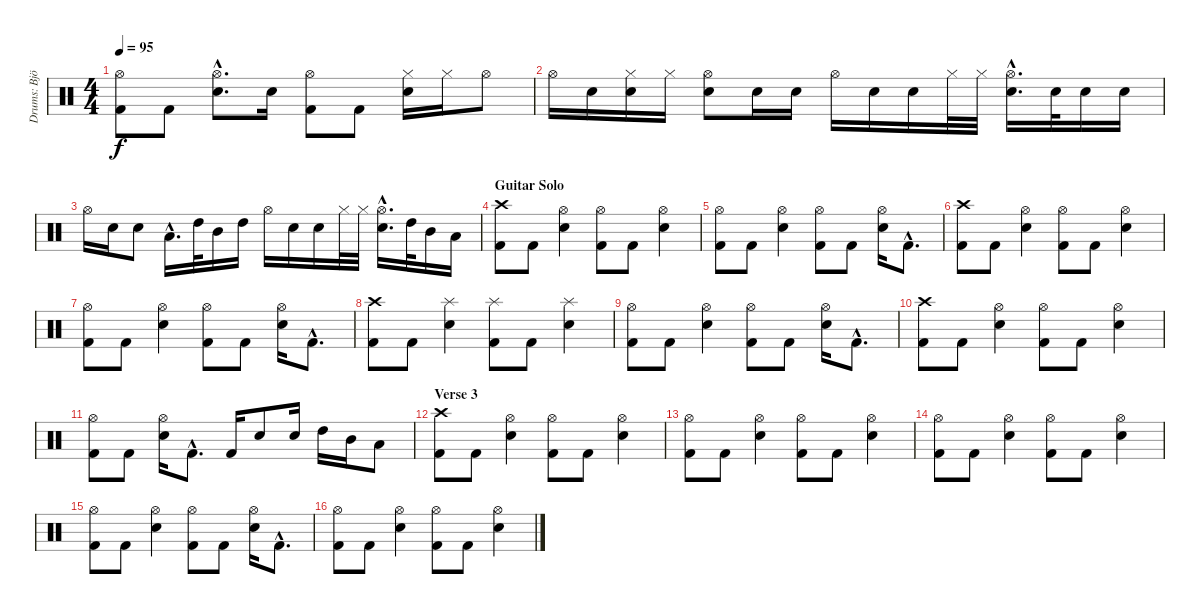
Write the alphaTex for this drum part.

\track ("Drums: Björn Fryklund" "Drums: Bjö") {instrument percussion}
\staff {score}
\articulation defaults
\ts (4 4)
\tempo 95
\clef neutral
\ks c
("Hi-Hat (open)" "Kick (hit) 2").8{dy f} "Kick (hit) 2".8 ("Hi-Hat (open)"{hac} "Snare (hit) 2"{hac}).8{d} "Snare (hit) 2".16 ("Hi-Hat (open)" "Kick (hit) 2").8 "Kick (hit) 2".8 ("Hi-Hat (closed)" "Snare (hit) 2").16 "Hi-Hat (closed)".16 "Hi-Hat (open)".8 |
"Hi-Hat (open)".16 "Snare (hit) 2".16 ("Hi-Hat (closed)" "Snare (hit) 2").16 "Hi-Hat (closed)".16 ("Hi-Hat (open)" "Snare (hit) 2").8 "Snare (hit) 2".16 "Snare (hit) 2".16 "Hi-Hat (open)".16 "Snare (hit) 2".16 "Snare (hit) 2".16 "Hi-Hat (closed)".32 "Hi-Hat (closed)".32 ("Hi-Hat (open)"{hac} "Snare (hit) 2"{hac}).16{d} "Snare (hit) 2".32 "Snare (hit) 2".16 "Snare (hit) 2".16 |
"Hi-Hat (open)".16 "Snare (hit) 2".16 "Snare (hit) 2".8 "Low Tom (hit)"{hac}.16{d} "High Tom (hit)".32 "Mid Tom (hit)".16 "High Tom (hit)".16 "Hi-Hat (open)".16 "Snare (hit) 2".16 "Snare (hit) 2".16 "Hi-Hat (closed)".32 "Hi-Hat (closed)".32 ("Hi-Hat (open)"{hac} "Snare (hit) 2"{hac}).16{d} "High Tom (hit)".32 "Mid Tom (hit)".16 "Low Tom (hit)".16 |
\section ("" "Guitar Solo")
("Crash high (hit)" "Kick (hit) 2").8 "Kick (hit) 2".8 ("Hi-Hat (open)" "Snare (hit) 2").4 ("Hi-Hat (open)" "Kick (hit) 2").8 "Kick (hit) 2".8 ("Hi-Hat (open)" "Snare (hit) 2").4 |
("Hi-Hat (open)" "Kick (hit) 2").8 "Kick (hit) 2".8 ("Hi-Hat (open)" "Snare (hit) 2").4 ("Hi-Hat (open)" "Kick (hit) 2").8 "Kick (hit) 2".8 ("Hi-Hat (open)" "Snare (hit) 2").16 "Kick (hit) 2"{hac}.8{d} |
("Crash high (hit)" "Kick (hit) 2").8 "Kick (hit) 2".8 ("Hi-Hat (open)" "Snare (hit) 2").4 ("Hi-Hat (open)" "Kick (hit) 2").8 "Kick (hit) 2".8 ("Hi-Hat (open)" "Snare (hit) 2").4 |
("Hi-Hat (open)" "Kick (hit) 2").8 "Kick (hit) 2".8 ("Hi-Hat (open)" "Snare (hit) 2").4 ("Hi-Hat (open)" "Kick (hit) 2").8 "Kick (hit) 2".8 ("Hi-Hat (open)" "Snare (hit) 2").16 "Kick (hit) 2"{hac}.8{d} |
("Crash high (hit)" "Kick (hit) 2").8 "Kick (hit) 2".8 ("Splash (hit)" "Snare (hit) 2").4 ("Splash (hit)" "Kick (hit) 2").8 "Kick (hit) 2".8 ("Splash (hit)" "Snare (hit) 2").4 |
("Hi-Hat (open)" "Kick (hit) 2").8 "Kick (hit) 2".8 ("Hi-Hat (open)" "Snare (hit) 2").4 ("Hi-Hat (open)" "Kick (hit) 2").8 "Kick (hit) 2".8 ("Hi-Hat (open)" "Snare (hit) 2").16 "Kick (hit) 2"{hac}.8{d} |
("Crash high (hit)" "Kick (hit) 2").8 "Kick (hit) 2".8 ("Hi-Hat (open)" "Snare (hit) 2").4 ("Hi-Hat (open)" "Kick (hit) 2").8 "Kick (hit) 2".8 ("Hi-Hat (open)" "Snare (hit) 2").4 |
("Hi-Hat (open)" "Kick (hit) 2").8 "Kick (hit) 2".8 ("Hi-Hat (open)" "Snare (hit) 2").16 "Kick (hit) 2"{hac}.8{d} "Kick (hit) 2".16 "Snare (hit) 2".8 "Snare (hit) 2".16 "High Tom (hit)".16 "Mid Tom (hit)".16 "Low Tom (hit)".8 |
\section ("" "Verse 3")
("Crash high (hit)" "Kick (hit) 2").8 "Kick (hit) 2".8 ("Hi-Hat (open)" "Snare (hit) 2").4 ("Hi-Hat (open)" "Kick (hit) 2").8 "Kick (hit) 2".8 ("Hi-Hat (open)" "Snare (hit) 2").4 |
("Hi-Hat (open)" "Kick (hit) 2").8 "Kick (hit) 2".8 ("Hi-Hat (open)" "Snare (hit) 2").4 ("Hi-Hat (open)" "Kick (hit) 2").8 "Kick (hit) 2".8 ("Hi-Hat (open)" "Snare (hit) 2").4 |
("Hi-Hat (open)" "Kick (hit) 2").8 "Kick (hit) 2".8 ("Hi-Hat (open)" "Snare (hit) 2").4 ("Hi-Hat (open)" "Kick (hit) 2").8 "Kick (hit) 2".8 ("Hi-Hat (open)" "Snare (hit) 2").4 |
("Hi-Hat (open)" "Kick (hit) 2").8 "Kick (hit) 2".8 ("Hi-Hat (open)" "Snare (hit) 2").4 ("Hi-Hat (open)" "Kick (hit) 2").8 "Kick (hit) 2".8 ("Hi-Hat (open)" "Snare (hit) 2").16 "Kick (hit) 2"{hac}.8{d} |
("Hi-Hat (open)" "Kick (hit) 2").8 "Kick (hit) 2".8 ("Hi-Hat (open)" "Snare (hit) 2").4 ("Hi-Hat (open)" "Kick (hit) 2").8 "Kick (hit) 2".8 ("Hi-Hat (open)" "Snare (hit) 2").4
